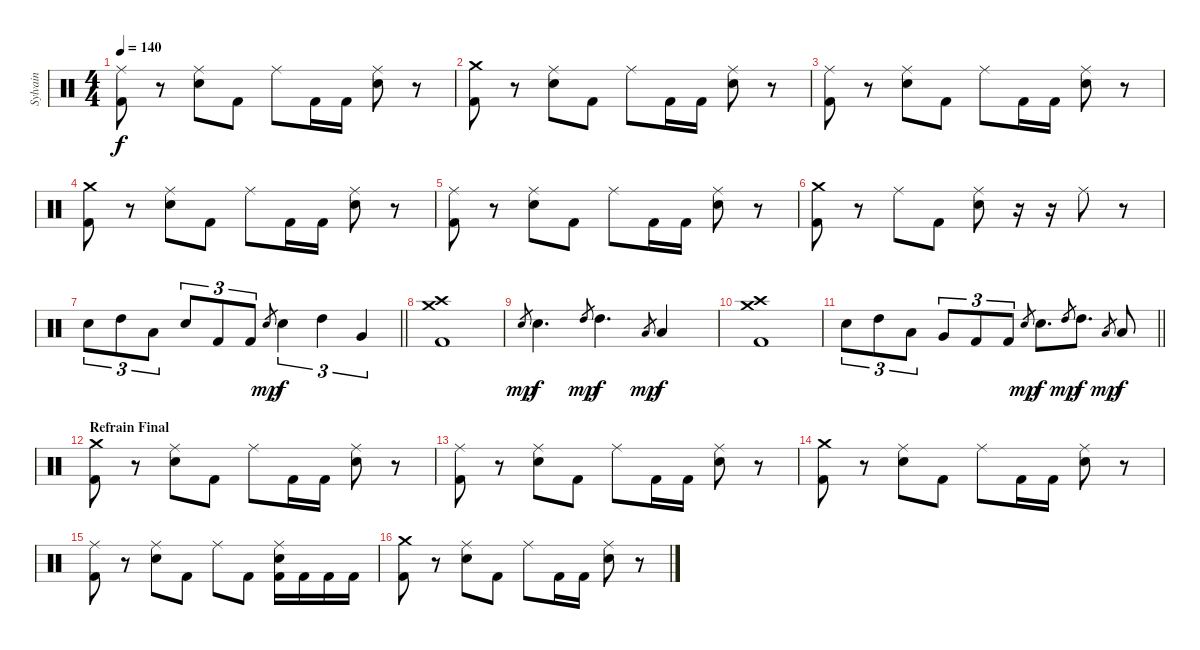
\track ("Sylvain" "Sylvain") {instrument percussion}
\staff {score}
\articulation defaults
\ts (4 4)
\tempo 140
\clef neutral
\ks c
("Ride (middle)" "Kick (hit) 2").8{dy f} r.8 ("Ride (middle)" "Snare (hit) 2").8 "Kick (hit) 2".8 "Ride (middle)".8 "Kick (hit) 2".16 "Kick (hit) 2".16 ("Ride (middle)" "Snare (hit) 2").8 r.8 |
("Crash medium (hit)" "Kick (hit) 2").8 r.8 ("Ride (middle)" "Snare (hit) 2").8 "Kick (hit) 2".8 "Ride (middle)".8 "Kick (hit) 2".16 "Kick (hit) 2".16 ("Ride (middle)" "Snare (hit) 2").8 r.8 |
("Ride (middle)" "Kick (hit) 2").8 r.8 ("Ride (middle)" "Snare (hit) 2").8 "Kick (hit) 2".8 "Ride (middle)".8 "Kick (hit) 2".16 "Kick (hit) 2".16 ("Ride (middle)" "Snare (hit) 2").8 r.8 |
("Crash medium (hit)" "Kick (hit) 2").8 r.8 ("Ride (middle)" "Snare (hit) 2").8 "Kick (hit) 2".8 "Ride (middle)".8 "Kick (hit) 2".16 "Kick (hit) 2".16 ("Ride (middle)" "Snare (hit) 2").8 r.8 |
("Ride (middle)" "Kick (hit) 2").8 r.8 ("Ride (middle)" "Snare (hit) 2").8 "Kick (hit) 2".8 "Ride (middle)".8 "Kick (hit) 2".16 "Kick (hit) 2".16 ("Ride (middle)" "Snare (hit) 2").8 r.8 |
("Crash medium (hit)" "Kick (hit) 2").8 r.8 "Ride (middle)".8 "Kick (hit) 2".8 ("Ride (middle)" "Snare (hit) 2").8 r.16 r.16 "Ride (middle)".8 r.8 |
\barLineRight lightlight "Snare (hit) 2".8{tu (3 2)} "High Tom (hit)".8{tu (3 2)} "Low Tom (hit)".8{tu (3 2)} "Snare (hit) 2".8{tu (3 2)} "Kick (hit) 2".8{tu (3 2)} "Kick (hit) 2".8{tu (3 2)} "Snare (hit) 2".8{gr dy mp} "Snare (hit) 2".4{tu (3 2) dy f} "High Tom (hit)".4{tu (3 2)} "Very Low Tom (hit)".4{tu (3 2)}
|
("Crash medium (hit)" "Crash high (hit)" "Kick (hit) 2").1 |
"Snare (hit) 2".8{gr dy mp} "Snare (hit) 2".4{d dy f} "High Tom (hit)".8{gr dy mp} "High Tom (hit)".4{d dy f} "Low Tom (hit)".8{gr dy mp} "Low Tom (hit)".4{dy f} |
("Crash medium (hit)" "Crash high (hit)" "Kick (hit) 2").1 |
\barLineRight lightlight "Snare (hit) 2".8{tu (3 2)} "High Tom (hit)".8{tu (3 2)} "Low Tom (hit)".8{tu (3 2)} "Very Low Tom (hit)".8{tu (3 2)} "Kick (hit) 2".8{tu (3 2)} "Kick (hit) 2".8{tu (3 2)} "Snare (hit) 2".8{gr dy mp} "Snare (hit) 2".8{d dy f} "High Tom (hit)".8{gr dy mp} "High Tom (hit)".8{d dy f} "Low Tom (hit)".8{gr dy mp} "Low Tom (hit)".8{dy f}
|
\section ("" "Refrain Final")
("Crash medium (hit)" "Kick (hit) 2").8 r.8 ("Ride (middle)" "Snare (hit) 2").8 "Kick (hit) 2".8 "Ride (middle)".8 "Kick (hit) 2".16 "Kick (hit) 2".16 ("Ride (middle)" "Snare (hit) 2").8 r.8 |
("Ride (middle)" "Kick (hit) 2").8 r.8 ("Ride (middle)" "Snare (hit) 2").8 "Kick (hit) 2".8 "Ride (middle)".8 "Kick (hit) 2".16 "Kick (hit) 2".16 ("Ride (middle)" "Snare (hit) 2").8 r.8 |
("Crash medium (hit)" "Kick (hit) 2").8 r.8 ("Ride (middle)" "Snare (hit) 2").8 "Kick (hit) 2".8 "Ride (middle)".8 "Kick (hit) 2".16 "Kick (hit) 2".16 ("Ride (middle)" "Snare (hit) 2").8 r.8 |
("Ride (middle)" "Kick (hit) 2").8 r.8 ("Ride (middle)" "Snare (hit) 2").8 "Kick (hit) 2".8 "Ride (middle)".8 "Kick (hit) 2".8 ("Ride (middle)" "Snare (hit) 2" "Kick (hit) 2").16 "Kick (hit) 2".16 "Kick (hit) 2".16 "Kick (hit) 2".16 |
("Crash medium (hit)" "Kick (hit) 2").8 r.8 ("Ride (middle)" "Snare (hit) 2").8 "Kick (hit) 2".8 "Ride (middle)".8 "Kick (hit) 2".16 "Kick (hit) 2".16 ("Ride (middle)" "Snare (hit) 2").8 r.8
